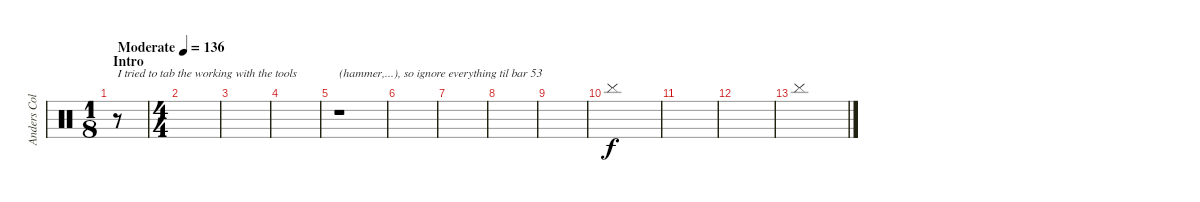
\track ("Anders Colsefni" "Anders Col") {instrument percussion}
\staff {score}
\articulation defaults
\ts (1 8)
\section ("" "Intro")
\tempo (136 "Moderate")
\clef neutral
\ks c
r.8{txt "I tried to tab the working with the tools " dy f} |
\ts (4 4)
|
|
|
r.1{txt "(hammer,...), so ignore everything til bar 53"} |
|
|
|
|
"Cymbal (hit)".1 |
|
|
"Cymbal (hit)".1
